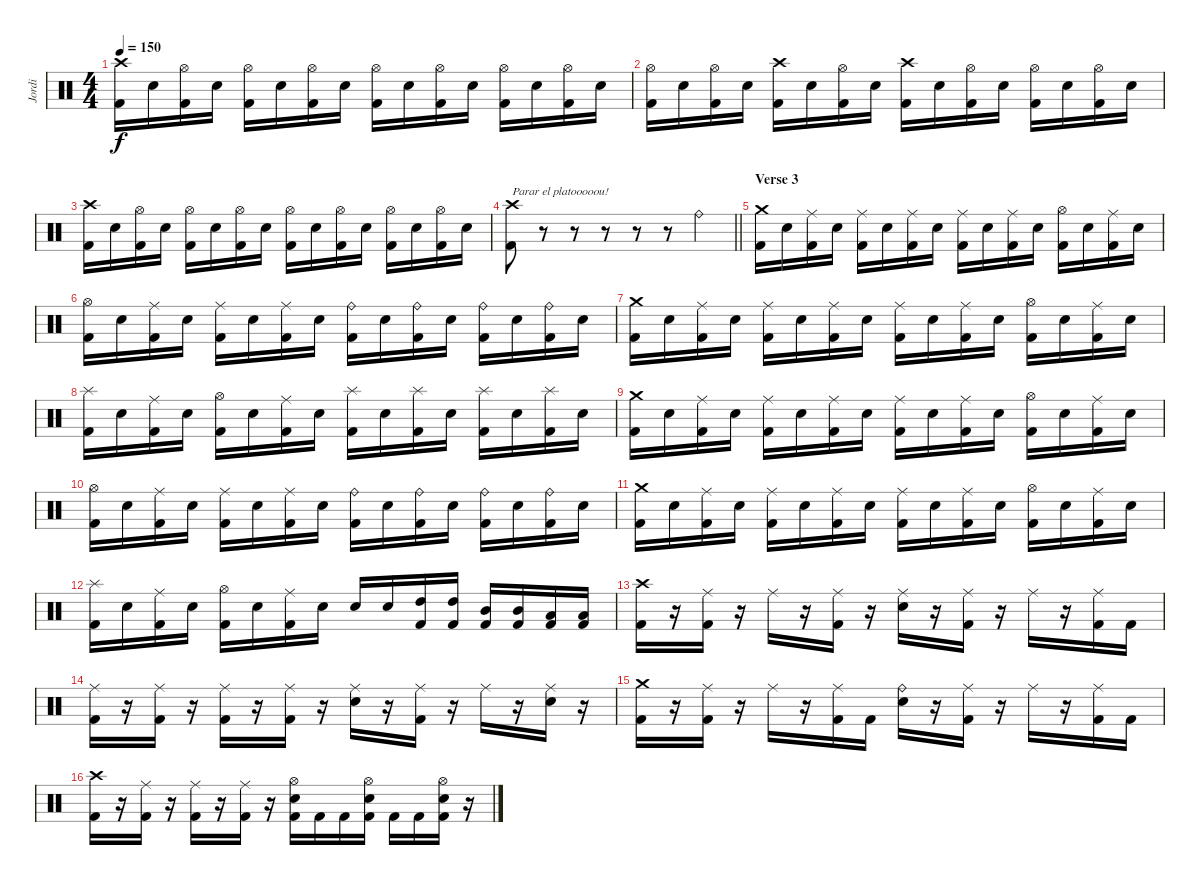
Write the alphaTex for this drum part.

\track ("Jordi" "Jordi") {instrument percussion}
\staff {score}
\articulation defaults
\ts (4 4)
\tempo 150
\clef neutral
\ks c
("Crash high (hit)" "Kick (hit) 2").16{dy f} "Snare (hit) 2".16 ("Hi-Hat (open)" "Kick (hit) 2").16 "Snare (hit) 2".16 ("Hi-Hat (open)" "Kick (hit) 2").16 "Snare (hit) 2".16 ("Hi-Hat (open)" "Kick (hit) 2").16 "Snare (hit) 2".16 ("Hi-Hat (open)" "Kick (hit) 2").16 "Snare (hit) 2".16 ("Hi-Hat (open)" "Kick (hit) 2").16 "Snare (hit) 2".16 ("Hi-Hat (open)" "Kick (hit) 2").16 "Snare (hit) 2".16 ("Hi-Hat (open)" "Kick (hit) 2").16 "Snare (hit) 2".16 |
("Hi-Hat (open)" "Kick (hit) 2").16 "Snare (hit) 2".16 ("Hi-Hat (open)" "Kick (hit) 2").16 "Snare (hit) 2".16 ("Crash high (hit)" "Kick (hit) 2").16 "Snare (hit) 2".16 ("Hi-Hat (open)" "Kick (hit) 2").16 "Snare (hit) 2".16 ("Crash high (hit)" "Kick (hit) 2").16 "Snare (hit) 2".16 ("Hi-Hat (open)" "Kick (hit) 2").16 "Snare (hit) 2".16 ("Hi-Hat (open)" "Kick (hit) 2").16 "Snare (hit) 2".16 ("Hi-Hat (open)" "Kick (hit) 2").16 "Snare (hit) 2".16 |
("Crash high (hit)" "Kick (hit) 2").16 "Snare (hit) 2".16 ("Hi-Hat (open)" "Kick (hit) 2").16 "Snare (hit) 2".16 ("Hi-Hat (open)" "Kick (hit) 2").16 "Snare (hit) 2".16 ("Hi-Hat (open)" "Kick (hit) 2").16 "Snare (hit) 2".16 ("Hi-Hat (open)" "Kick (hit) 2").16 "Snare (hit) 2".16 ("Hi-Hat (open)" "Kick (hit) 2").16 "Snare (hit) 2".16 ("Hi-Hat (open)" "Kick (hit) 2").16 "Snare (hit) 2".16 ("Hi-Hat (open)" "Kick (hit) 2").16 "Snare (hit) 2".16 |
\barLineRight lightlight
("Crash high (hit)" "Kick (hit) 2").8{txt "Parar el platooooou!"} r.8{volume 0} r.8 r.8 r.8 r.8 "Ride (bell)".4{volume 16} |
\section ("" "Verse 3")
("Crash medium (hit)" "Kick (hit) 2").16 "Snare (hit) 2".16 ("Ride (middle)" "Kick (hit) 2").16 "Snare (hit) 2".16 ("Ride (middle)" "Kick (hit) 2").16 "Snare (hit) 2".16 ("Ride (middle)" "Kick (hit) 2").16 "Snare (hit) 2".16 ("Ride (middle)" "Kick (hit) 2").16 "Snare (hit) 2".16 ("Ride (middle)" "Kick (hit) 2").16 "Snare (hit) 2".16 ("Hi-Hat (open)" "Kick (hit) 2").16 "Snare (hit) 2".16 ("Ride (middle)" "Kick (hit) 2").16 "Snare (hit) 2".16 |
("Hi-Hat (open)" "Kick (hit) 2").16 "Snare (hit) 2".16 ("Ride (middle)" "Kick (hit) 2").16 "Snare (hit) 2".16 ("Ride (middle)" "Kick (hit) 2").16 "Snare (hit) 2".16 ("Ride (middle)" "Kick (hit) 2").16 "Snare (hit) 2".16 ("Ride (bell)" "Kick (hit) 2").16 "Snare (hit) 2".16 ("Ride (bell)" "Kick (hit) 2").16 "Snare (hit) 2".16 ("Ride (bell)" "Kick (hit) 2").16 "Snare (hit) 2".16 ("Ride (bell)" "Kick (hit) 2").16 "Snare (hit) 2".16 |
("Crash medium (hit)" "Kick (hit) 2").16 "Snare (hit) 2".16 ("Ride (middle)" "Kick (hit) 2").16 "Snare (hit) 2".16 ("Ride (middle)" "Kick (hit) 2").16 "Snare (hit) 2".16 ("Ride (middle)" "Kick (hit) 2").16 "Snare (hit) 2".16 ("Ride (middle)" "Kick (hit) 2").16 "Snare (hit) 2".16 ("Ride (middle)" "Kick (hit) 2").16 "Snare (hit) 2".16 ("Hi-Hat (open)" "Kick (hit) 2").16 "Snare (hit) 2".16 ("Ride (middle)" "Kick (hit) 2").16 "Snare (hit) 2".16 |
("Splash (hit)" "Kick (hit) 2").16 "Snare (hit) 2".16 ("Ride (middle)" "Kick (hit) 2").16 "Snare (hit) 2".16 ("Hi-Hat (open)" "Kick (hit) 2").16 "Snare (hit) 2".16 ("Ride (middle)" "Kick (hit) 2").16 "Snare (hit) 2".16 ("Splash (hit)" "Kick (hit) 2").16 "Snare (hit) 2".16 ("Splash (hit)" "Kick (hit) 2").16 "Snare (hit) 2".16 ("Splash (hit)" "Kick (hit) 2").16 "Snare (hit) 2".16 ("Splash (hit)" "Kick (hit) 2").16 "Snare (hit) 2".16 |
("Crash medium (hit)" "Kick (hit) 2").16 "Snare (hit) 2".16 ("Ride (middle)" "Kick (hit) 2").16 "Snare (hit) 2".16 ("Ride (middle)" "Kick (hit) 2").16 "Snare (hit) 2".16 ("Ride (middle)" "Kick (hit) 2").16 "Snare (hit) 2".16 ("Ride (middle)" "Kick (hit) 2").16 "Snare (hit) 2".16 ("Ride (middle)" "Kick (hit) 2").16 "Snare (hit) 2".16 ("Hi-Hat (open)" "Kick (hit) 2").16 "Snare (hit) 2".16 ("Ride (middle)" "Kick (hit) 2").16 "Snare (hit) 2".16 |
("Hi-Hat (open)" "Kick (hit) 2").16 "Snare (hit) 2".16 ("Ride (middle)" "Kick (hit) 2").16 "Snare (hit) 2".16 ("Ride (middle)" "Kick (hit) 2").16 "Snare (hit) 2".16 ("Ride (middle)" "Kick (hit) 2").16 "Snare (hit) 2".16 ("Ride (bell)" "Kick (hit) 2").16 "Snare (hit) 2".16 ("Ride (bell)" "Kick (hit) 2").16 "Snare (hit) 2".16 ("Ride (bell)" "Kick (hit) 2").16 "Snare (hit) 2".16 ("Ride (bell)" "Kick (hit) 2").16 "Snare (hit) 2".16 |
("Crash medium (hit)" "Kick (hit) 2").16 "Snare (hit) 2".16 ("Ride (middle)" "Kick (hit) 2").16 "Snare (hit) 2".16 ("Ride (middle)" "Kick (hit) 2").16 "Snare (hit) 2".16 ("Ride (middle)" "Kick (hit) 2").16 "Snare (hit) 2".16 ("Ride (middle)" "Kick (hit) 2").16 "Snare (hit) 2".16 ("Ride (middle)" "Kick (hit) 2").16 "Snare (hit) 2".16 ("Hi-Hat (open)" "Kick (hit) 2").16 "Snare (hit) 2".16 ("Ride (middle)" "Kick (hit) 2").16 "Snare (hit) 2".16 |
("Splash (hit)" "Kick (hit) 2").16 "Snare (hit) 2".16 ("Ride (middle)" "Kick (hit) 2").16 "Snare (hit) 2".16 ("Hi-Hat (open)" "Kick (hit) 2").16 "Snare (hit) 2".16 ("Ride (middle)" "Kick (hit) 2").16 "Snare (hit) 2".16 "Snare (hit) 2".16 "Snare (hit) 2".16 ("High Tom (hit)" "Kick (hit) 2").16 ("High Tom (hit)" "Kick (hit) 2").16 ("Mid Tom (hit)" "Kick (hit) 2").16 ("Mid Tom (hit)" "Kick (hit) 2").16 ("Low Tom (hit)" "Kick (hit) 2").16 ("Low Tom (hit)" "Kick (hit) 2").16 |
("Crash high (hit)" "Kick (hit) 2").16 r.16 ("Ride (middle)" "Kick (hit) 2").16 r.16 "Ride (middle)".16 r.16 ("Ride (middle)" "Kick (hit) 2").16 r.16 ("Ride (middle)" "Snare (hit) 2").16 r.16 ("Ride (middle)" "Kick (hit) 2").16 r.16 "Ride (middle)".16 r.16 ("Ride (middle)" "Kick (hit) 2").16 "Kick (hit) 2".16 |
("Ride (middle)" "Kick (hit) 2").16 r.16 ("Ride (middle)" "Kick (hit) 2").16 r.16 ("Ride (middle)" "Kick (hit) 2").16 r.16 ("Ride (middle)" "Kick (hit) 2").16 r.16 ("Ride (middle)" "Snare (hit) 2").16 r.16 ("Ride (middle)" "Kick (hit) 2").16 r.16 "Ride (middle)".16 r.16 ("Ride (middle)" "Snare (hit) 2").16 r.16 |
("Crash medium (hit)" "Kick (hit) 2").16 r.16 ("Ride (middle)" "Kick (hit) 2").16 r.16 "Ride (middle)".16 r.16 ("Ride (middle)" "Kick (hit) 2").16 "Kick (hit) 2".16 ("Ride (bell)" "Snare (hit) 2").16 r.16 ("Ride (middle)" "Kick (hit) 2").16 r.16 "Ride (middle)".16 r.16 ("Ride (middle)" "Kick (hit) 2").16 "Kick (hit) 2".16 |
("Crash high (hit)" "Kick (hit) 2").16 r.16 ("Ride (middle)" "Kick (hit) 2").16 r.16 ("Ride (middle)" "Kick (hit) 2").16 r.16 ("Ride (middle)" "Kick (hit) 2").16 r.16 ("Hi-Hat (open)" "Snare (hit) 2" "Kick (hit) 2").16 "Kick (hit) 2".16 "Kick (hit) 2".16 ("Hi-Hat (open)" "Snare (hit) 2" "Kick (hit) 2").16 "Kick (hit) 2".16 "Kick (hit) 2".16 ("Hi-Hat (open)" "Snare (hit) 2" "Kick (hit) 2").16 r.16
